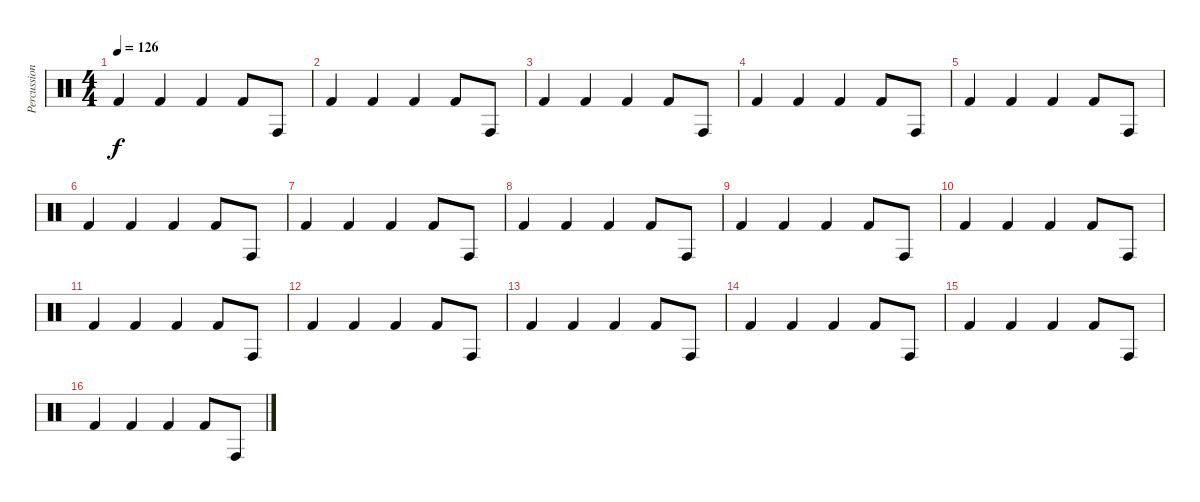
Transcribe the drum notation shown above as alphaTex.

\track ("Percussions" "Percussion") {instrument percussion}
\staff {score}
\articulation defaults
\ts (4 4)
\tempo 126
\clef neutral
\ks c "Kick (hit) 2".4{dy f} "Kick (hit) 2".4 "Kick (hit) 2".4 "Kick (hit) 2".8 "Conga high (hit)".8
|
"Kick (hit) 2".4 "Kick (hit) 2".4 "Kick (hit) 2".4 "Kick (hit) 2".8 "Conga high (hit)".8 |
"Kick (hit) 2".4 "Kick (hit) 2".4 "Kick (hit) 2".4 "Kick (hit) 2".8 "Conga high (hit)".8 |
"Kick (hit) 2".4 "Kick (hit) 2".4 "Kick (hit) 2".4 "Kick (hit) 2".8 "Conga high (hit)".8 |
"Kick (hit) 2".4 "Kick (hit) 2".4 "Kick (hit) 2".4 "Kick (hit) 2".8 "Conga high (hit)".8 |
"Kick (hit) 2".4 "Kick (hit) 2".4 "Kick (hit) 2".4 "Kick (hit) 2".8 "Conga high (hit)".8 |
"Kick (hit) 2".4 "Kick (hit) 2".4 "Kick (hit) 2".4 "Kick (hit) 2".8 "Conga high (hit)".8 |
"Kick (hit) 2".4 "Kick (hit) 2".4 "Kick (hit) 2".4 "Kick (hit) 2".8 "Conga high (hit)".8 |
"Kick (hit) 2".4 "Kick (hit) 2".4 "Kick (hit) 2".4 "Kick (hit) 2".8 "Conga high (hit)".8 |
"Kick (hit) 2".4 "Kick (hit) 2".4 "Kick (hit) 2".4 "Kick (hit) 2".8 "Conga high (hit)".8 |
"Kick (hit) 2".4 "Kick (hit) 2".4 "Kick (hit) 2".4 "Kick (hit) 2".8 "Conga high (hit)".8 |
"Kick (hit) 2".4 "Kick (hit) 2".4 "Kick (hit) 2".4 "Kick (hit) 2".8 "Conga high (hit)".8 |
"Kick (hit) 2".4 "Kick (hit) 2".4 "Kick (hit) 2".4 "Kick (hit) 2".8 "Conga high (hit)".8 |
"Kick (hit) 2".4 "Kick (hit) 2".4 "Kick (hit) 2".4 "Kick (hit) 2".8 "Conga high (hit)".8 |
"Kick (hit) 2".4 "Kick (hit) 2".4 "Kick (hit) 2".4 "Kick (hit) 2".8 "Conga high (hit)".8 |
"Kick (hit) 2".4 "Kick (hit) 2".4 "Kick (hit) 2".4 "Kick (hit) 2".8 "Conga high (hit)".8
